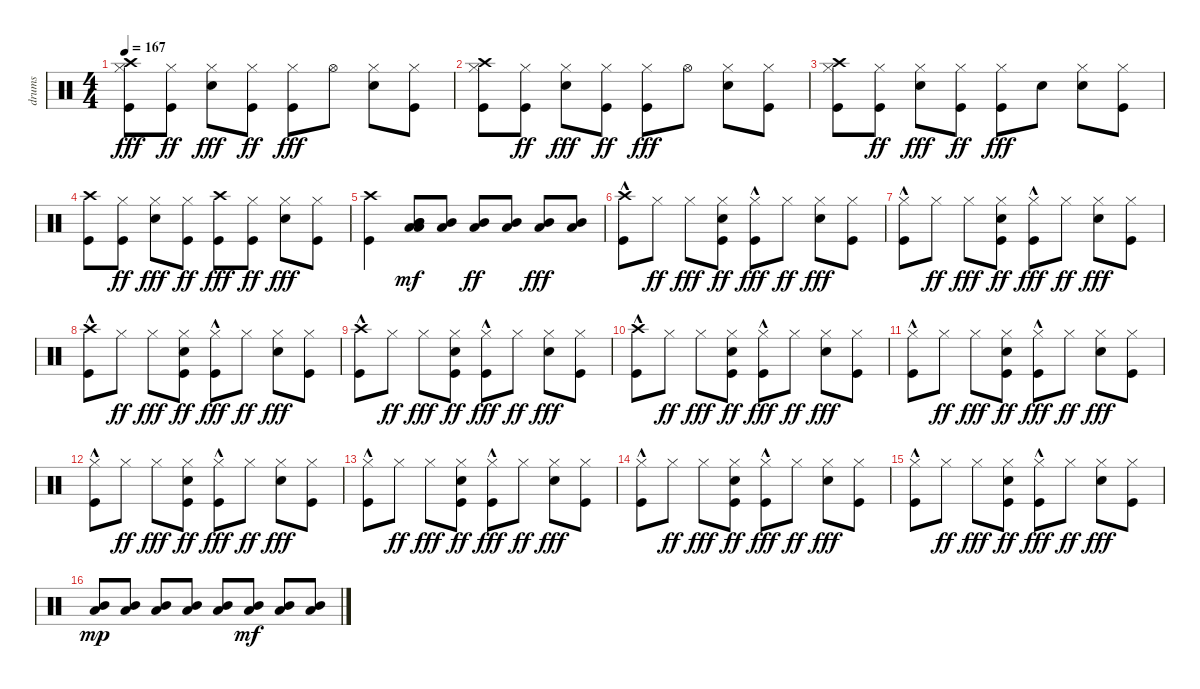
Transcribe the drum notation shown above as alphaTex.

\track ("drums" "drums") {instrument percussion}
\staff {score}
\articulation defaults
\ts (4 4)
\tempo 167
\clef neutral
\ks c
("Kick (hit)" "Hi-Hat (closed)" "Crash high (hit)").8{dy fff} ("Kick (hit)" "Hi-Hat (closed)").8{dy ff} ("Snare (hit) 2" "Hi-Hat (closed)").8{dy fff} ("Kick (hit)" "Hi-Hat (closed)").8{dy ff} ("Kick (hit)" "Hi-Hat (closed)").8{dy fff} "Hi-Hat (open)".8 ("Snare (hit) 2" "Hi-Hat (closed)").8 ("Hi-Hat (closed)" "Kick (hit)").8 |
("Kick (hit)" "Hi-Hat (closed)" "Crash high (hit)").8 ("Kick (hit)" "Hi-Hat (closed)").8{dy ff} ("Snare (hit) 2" "Hi-Hat (closed)").8{dy fff} ("Kick (hit)" "Hi-Hat (closed)").8{dy ff} ("Kick (hit)" "Hi-Hat (closed)").8{dy fff} "Hi-Hat (open)".8 ("Snare (hit) 2" "Hi-Hat (closed)").8 ("Hi-Hat (closed)" "Kick (hit)").8 |
("Kick (hit)" "Hi-Hat (closed)" "Crash high (hit)").8 ("Kick (hit)" "Hi-Hat (closed)").8{dy ff} ("Snare (hit) 2" "Hi-Hat (closed)").8{dy fff} ("Kick (hit)" "Hi-Hat (closed)").8{dy ff} ("Kick (hit)" "Hi-Hat (closed)").8{dy fff} "Snare (hit) 2".8 ("Snare (hit) 2" "Hi-Hat (closed)").8 ("Hi-Hat (closed)" "Kick (hit)").8 |
("Kick (hit)" "Crash high (hit)").8 ("Kick (hit)" "Hi-Hat (closed)").8{dy ff} ("Snare (hit) 2" "Hi-Hat (closed)").8{dy fff} ("Kick (hit)" "Hi-Hat (closed)").8{dy ff} ("Crash high (hit)" "Kick (hit)").8{dy fff} ("Kick (hit)" "Hi-Hat (closed)").8{dy ff} ("Snare (hit) 2" "Hi-Hat (closed)").8{dy fff} ("Hi-Hat (closed)" "Kick (hit)").8 |
("Crash high (hit)" "Kick (hit)").4 ("Mid Tom (hit)" "Low Tom (hit)" "Low Tom (hit)" "Mid Tom (hit)").8{dy mf} ("Low Tom (hit)" "Mid Tom (hit)").8 ("Low Tom (hit)" "Mid Tom (hit)").8{dy ff} ("Low Tom (hit)" "Mid Tom (hit)").8 ("Low Tom (hit)" "Mid Tom (hit)").8{dy fff} ("Mid Tom (hit)" "Low Tom (hit)").8 |
("Crash high (hit)" "Kick (hit)"{hac}).8 "Hi-Hat (closed)".8{dy ff} "Hi-Hat (closed)".8{dy fff} ("Snare (hit)" "Kick (hit)" "Hi-Hat (closed)").8{dy ff} ("Kick (hit)"{hac} "Hi-Hat (closed)").8{dy fff} "Hi-Hat (closed)".8{dy ff} ("Snare (hit) 2" "Hi-Hat (closed)").8{dy fff} ("Hi-Hat (closed)" "Kick (hit)").8 |
("Kick (hit)"{hac} "Hi-Hat (closed)").8 "Hi-Hat (closed)".8{dy ff} "Hi-Hat (closed)".8{dy fff} ("Snare (hit)" "Kick (hit)" "Hi-Hat (closed)").8{dy ff} ("Kick (hit)"{hac} "Hi-Hat (closed)").8{dy fff} "Hi-Hat (closed)".8{dy ff} ("Snare (hit) 2" "Hi-Hat (closed)").8{dy fff} ("Hi-Hat (closed)" "Kick (hit)").8 |
("Crash high (hit)" "Kick (hit)"{hac}).8 "Hi-Hat (closed)".8{dy ff} "Hi-Hat (closed)".8{dy fff} ("Snare (hit)" "Kick (hit)" "Hi-Hat (closed)").8{dy ff} ("Kick (hit)"{hac} "Hi-Hat (closed)").8{dy fff} "Hi-Hat (closed)".8{dy ff} ("Snare (hit) 2" "Hi-Hat (closed)").8{dy fff} ("Hi-Hat (closed)" "Kick (hit)").8 |
("Crash high (hit)" "Kick (hit)"{hac}).8 "Hi-Hat (closed)".8{dy ff} "Hi-Hat (closed)".8{dy fff} ("Snare (hit)" "Kick (hit)" "Hi-Hat (closed)").8{dy ff} ("Kick (hit)"{hac} "Hi-Hat (closed)").8{dy fff} "Hi-Hat (closed)".8{dy ff} ("Snare (hit) 2" "Hi-Hat (closed)").8{dy fff} ("Hi-Hat (closed)" "Kick (hit)").8 |
("Crash high (hit)" "Kick (hit)"{hac}).8 "Hi-Hat (closed)".8{dy ff} "Hi-Hat (closed)".8{dy fff} ("Snare (hit)" "Kick (hit)" "Hi-Hat (closed)").8{dy ff} ("Kick (hit)"{hac} "Hi-Hat (closed)").8{dy fff} "Hi-Hat (closed)".8{dy ff} ("Snare (hit) 2" "Hi-Hat (closed)").8{dy fff} ("Hi-Hat (closed)" "Kick (hit)").8 |
("Kick (hit)"{hac} "Hi-Hat (closed)").8 "Hi-Hat (closed)".8{dy ff} "Hi-Hat (closed)".8{dy fff} ("Snare (hit)" "Kick (hit)" "Hi-Hat (closed)").8{dy ff} ("Kick (hit)"{hac} "Hi-Hat (closed)").8{dy fff} "Hi-Hat (closed)".8{dy ff} ("Snare (hit) 2" "Hi-Hat (closed)").8{dy fff} ("Hi-Hat (closed)" "Kick (hit)").8 |
("Kick (hit)"{hac} "Hi-Hat (closed)").8 "Hi-Hat (closed)".8{dy ff} "Hi-Hat (closed)".8{dy fff} ("Snare (hit)" "Kick (hit)" "Hi-Hat (closed)").8{dy ff} ("Kick (hit)"{hac} "Hi-Hat (closed)").8{dy fff} "Hi-Hat (closed)".8{dy ff} ("Snare (hit) 2" "Hi-Hat (closed)").8{dy fff} ("Hi-Hat (closed)" "Kick (hit)").8 |
("Kick (hit)"{hac} "Hi-Hat (closed)").8 "Hi-Hat (closed)".8{dy ff} "Hi-Hat (closed)".8{dy fff} ("Snare (hit)" "Kick (hit)" "Hi-Hat (closed)").8{dy ff} ("Kick (hit)"{hac} "Hi-Hat (closed)").8{dy fff} "Hi-Hat (closed)".8{dy ff} ("Snare (hit) 2" "Hi-Hat (closed)").8{dy fff} ("Hi-Hat (closed)" "Kick (hit)").8 |
("Kick (hit)"{hac} "Hi-Hat (closed)").8 "Hi-Hat (closed)".8{dy ff} "Hi-Hat (closed)".8{dy fff} ("Snare (hit)" "Kick (hit)" "Hi-Hat (closed)").8{dy ff} ("Kick (hit)"{hac} "Hi-Hat (closed)").8{dy fff} "Hi-Hat (closed)".8{dy ff} ("Snare (hit) 2" "Hi-Hat (closed)").8{dy fff} ("Hi-Hat (closed)" "Kick (hit)").8 |
("Kick (hit)"{hac} "Hi-Hat (closed)").8 "Hi-Hat (closed)".8{dy ff} "Hi-Hat (closed)".8{dy fff} ("Snare (hit)" "Kick (hit)" "Hi-Hat (closed)").8{dy ff} ("Kick (hit)"{hac} "Hi-Hat (closed)").8{dy fff} "Hi-Hat (closed)".8{dy ff} ("Snare (hit) 2" "Hi-Hat (closed)").8{dy fff} ("Hi-Hat (closed)" "Kick (hit)").8 |
("Low Tom (hit)" "Mid Tom (hit)").8{dy mp} ("Low Tom (hit)" "Mid Tom (hit)").8 ("Low Tom (hit)" "Mid Tom (hit)").8 ("Low Tom (hit)" "Mid Tom (hit)").8 ("Low Tom (hit)" "Mid Tom (hit)").8 ("Low Tom (hit)" "Mid Tom (hit)").8{dy mf} ("Low Tom (hit)" "Mid Tom (hit)").8 ("Mid Tom (hit)" "Low Tom (hit)").8
